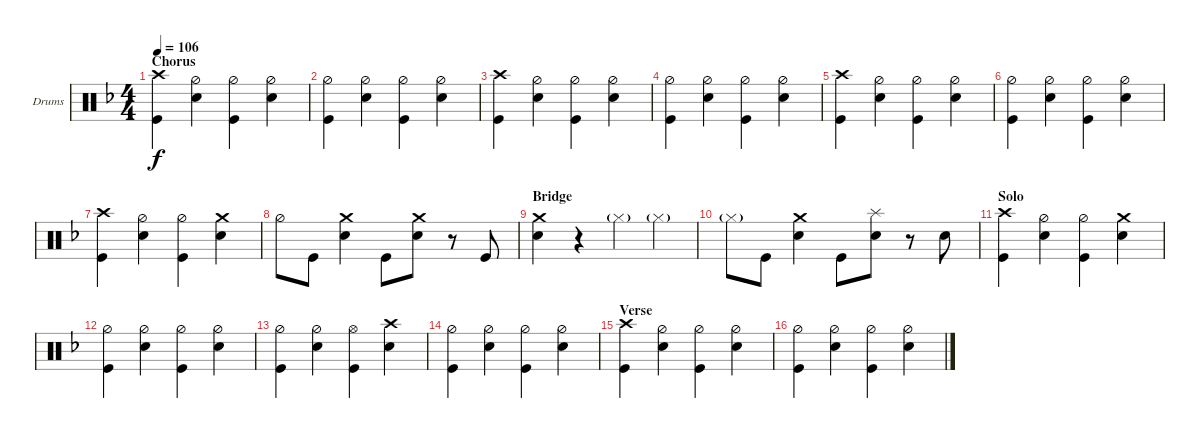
\defaultSystemsLayout 4
\bracketExtendMode groupsimilarinstruments
\firstSystemTrackNameOrientation horizontal
\otherSystemsTrackNameOrientation horizontal
\track ("Simon Wright" "Drums") {instrument percussion}
\staff {score}
\articulation defaults
\ts (4 4)
\section ("" "Chorus")
\tempo 106
\clef neutral
\ks dminor
("Kick (hit)" "Crash high (hit)").4{dy f} ("Snare (hit) 2" "Hi-Hat (half)").4 ("Kick (hit)" "Hi-Hat (half)").4 ("Hi-Hat (half)" "Snare (hit) 2").4 |
("Kick (hit)" "Hi-Hat (half)").4 ("Hi-Hat (half)" "Snare (hit) 2").4 ("Kick (hit)" "Hi-Hat (half)").4 ("Hi-Hat (half)" "Snare (hit) 2").4 |
("Kick (hit)" "Crash high (hit)").4 ("Snare (hit) 2" "Hi-Hat (half)").4 ("Kick (hit)" "Hi-Hat (half)").4 ("Hi-Hat (half)" "Snare (hit) 2").4 |
("Kick (hit)" "Hi-Hat (half)").4 ("Hi-Hat (half)" "Snare (hit) 2").4 ("Kick (hit)" "Hi-Hat (half)").4 ("Hi-Hat (half)" "Snare (hit) 2").4 |
("Kick (hit)" "Crash high (hit)").4 ("Snare (hit) 2" "Hi-Hat (half)").4 ("Kick (hit)" "Hi-Hat (half)").4 ("Hi-Hat (half)" "Snare (hit) 2").4 |
("Kick (hit)" "Hi-Hat (half)").4 ("Hi-Hat (half)" "Snare (hit) 2").4 ("Kick (hit)" "Hi-Hat (half)").4 ("Hi-Hat (half)" "Snare (hit) 2").4 |
("Kick (hit)" "Crash high (hit)").4 ("Snare (hit) 2" "Hi-Hat (half)").4 ("Kick (hit)" "Hi-Hat (half)").4 ("Snare (hit) 2" "Crash medium (hit)").4 |
"Hi-Hat (half)".8 "Kick (hit)".8 ("Snare (hit) 2" "Crash medium (hit)").4 "Kick (hit)".8 ("Snare (hit) 2" "Crash medium (hit)").8 r.8 "Kick (hit)".8 |
\section ("" "Bridge")
("Snare (hit) 2" "Crash medium (hit)").4 r.4 "Hi-Hat (closed)"{g}.4 "Hi-Hat (closed)"{g}.4 |
"Hi-Hat (closed)"{g}.8 "Kick (hit)".8 ("Snare (hit) 2" "Crash medium (hit)").4 "Kick (hit)".8 ("Snare (hit) 2" "Splash (hit)").8 r.8 "Snare (hit) 2".8 |
\section ("" "Solo")
("Kick (hit)" "Crash high (hit)").4 ("Snare (hit) 2" "Hi-Hat (half)").4 ("Kick (hit)" "Hi-Hat (half)").4 ("Snare (hit) 2" "Crash medium (hit)").4 |
("Kick (hit)" "Hi-Hat (half)").4 ("Hi-Hat (half)" "Snare (hit) 2").4 ("Kick (hit)" "Hi-Hat (half)").4 ("Hi-Hat (half)" "Snare (hit) 2").4 |
("Kick (hit)" "Hi-Hat (half)").4 ("Snare (hit) 2" "Hi-Hat (half)").4 ("Kick (hit)" "Hi-Hat (open)").4 ("Snare (hit) 2" "Crash high (hit)").4 |
("Kick (hit)" "Hi-Hat (half)").4 ("Hi-Hat (half)" "Snare (hit) 2").4 ("Kick (hit)" "Hi-Hat (half)").4 ("Hi-Hat (half)" "Snare (hit) 2").4 |
\section ("" "Verse")
("Kick (hit)" "Crash high (hit)").4 ("Snare (hit) 2" "Hi-Hat (half)").4 ("Kick (hit)" "Hi-Hat (half)").4 ("Hi-Hat (half)" "Snare (hit) 2").4 |
("Kick (hit)" "Hi-Hat (half)").4 ("Hi-Hat (half)" "Snare (hit) 2").4 ("Kick (hit)" "Hi-Hat (half)").4 ("Hi-Hat (half)" "Snare (hit) 2").4
